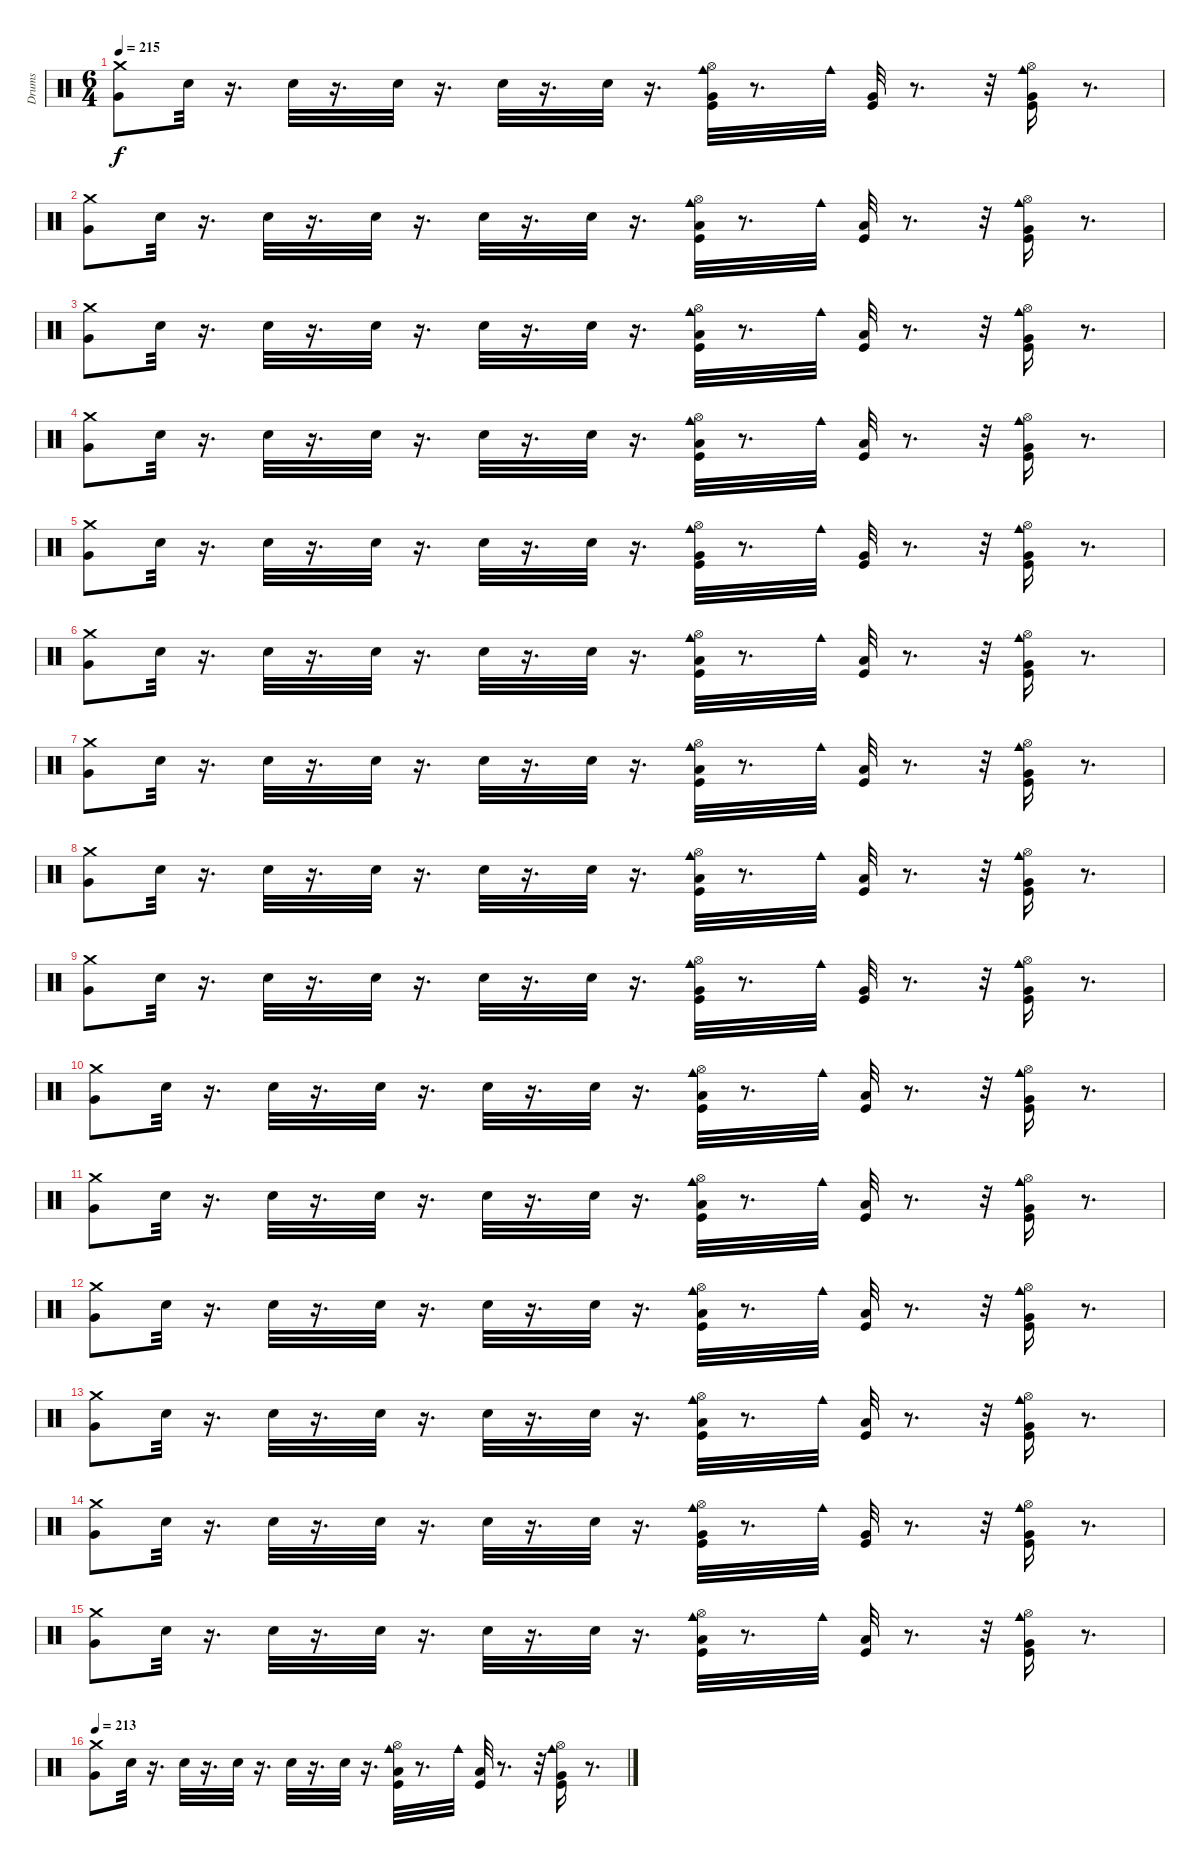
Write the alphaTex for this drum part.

\track ("Drums" "Drums") {instrument percussion}
\staff {score}
\articulation defaults
\ts (6 4)
\tempo 215
\clef neutral
\ks c
("Very Low Tom (hit)" "Crash medium (hit)").8{dy f} "Snare (hit) 2".32 r.16{d} "Snare (hit) 2".32 r.16{d} "Snare (hit) 2".32 r.16{d} "Snare (hit) 2".32 r.16{d} "Electric Snare (hit)".32 r.16{d} ("Very Low Tom (hit)" "Kick (hit)" "Hi-Hat (open)" "Cowbell medium (hit)").32 r.8{d} "Cowbell medium (hit)".32 ("Very Low Tom (hit)" "Kick (hit)").32 r.8{d} r.32 ("Very Low Tom (hit)" "Hi-Hat (open)" "Kick (hit)" "Cowbell medium (hit)").16 r.8{d} |
("Very Low Tom (hit)" "Crash medium (hit)").8 "Snare (hit) 2".32 r.16{d} "Snare (hit) 2".32 r.16{d} "Snare (hit) 2".32 r.16{d} "Snare (hit) 2".32 r.16{d} "Snare (hit) 2".32 r.16{d} ("Kick (hit)" "Hi-Hat (open)" "Cowbell medium (hit)" "Low Floor Tom (hit)").32 r.8{d} "Cowbell medium (hit)".32 ("Kick (hit)" "Low Floor Tom (hit)").32 r.8{d} r.32 ("Hi-Hat (open)" "Kick (hit)" "Cowbell medium (hit)" "Very Low Tom (hit)").16 r.8{d} |
("Very Low Tom (hit)" "Crash medium (hit)").8 "Snare (hit) 2".32 r.16{d} "Snare (hit) 2".32 r.16{d} "Snare (hit) 2".32 r.16{d} "Snare (hit) 2".32 r.16{d} "Snare (hit) 2".32 r.16{d} ("Kick (hit)" "Hi-Hat (open)" "Cowbell medium (hit)" "Low Floor Tom (hit)").32 r.8{d} "Cowbell medium (hit)".32 ("Kick (hit)" "Low Floor Tom (hit)").32 r.8{d} r.32 ("Hi-Hat (open)" "Kick (hit)" "Cowbell medium (hit)" "Very Low Tom (hit)").16 r.8{d} |
("Very Low Tom (hit)" "Crash medium (hit)").8 "Snare (hit) 2".32 r.16{d} "Snare (hit) 2".32 r.16{d} "Snare (hit) 2".32 r.16{d} "Snare (hit) 2".32 r.16{d} "Snare (hit) 2".32 r.16{d} ("Kick (hit)" "Hi-Hat (open)" "Cowbell medium (hit)" "Low Floor Tom (hit)").32 r.8{d} "Cowbell medium (hit)".32 ("Kick (hit)" "Low Floor Tom (hit)").32 r.8{d} r.32 ("Hi-Hat (open)" "Kick (hit)" "Cowbell medium (hit)" "Very Low Tom (hit)").16 r.8{d} |
("Very Low Tom (hit)" "Crash medium (hit)").8 "Snare (hit) 2".32 r.16{d} "Snare (hit) 2".32 r.16{d} "Snare (hit) 2".32 r.16{d} "Snare (hit) 2".32 r.16{d} "Electric Snare (hit)".32 r.16{d} ("Very Low Tom (hit)" "Kick (hit)" "Hi-Hat (open)" "Cowbell medium (hit)").32 r.8{d} "Cowbell medium (hit)".32 ("Very Low Tom (hit)" "Kick (hit)").32 r.8{d} r.32 ("Very Low Tom (hit)" "Hi-Hat (open)" "Kick (hit)" "Cowbell medium (hit)").16 r.8{d} |
("Very Low Tom (hit)" "Crash medium (hit)").8 "Snare (hit) 2".32 r.16{d} "Snare (hit) 2".32 r.16{d} "Snare (hit) 2".32 r.16{d} "Snare (hit) 2".32 r.16{d} "Snare (hit) 2".32 r.16{d} ("Kick (hit)" "Hi-Hat (open)" "Cowbell medium (hit)" "Low Floor Tom (hit)").32 r.8{d} "Cowbell medium (hit)".32 ("Kick (hit)" "Low Floor Tom (hit)").32 r.8{d} r.32 ("Hi-Hat (open)" "Kick (hit)" "Cowbell medium (hit)" "Very Low Tom (hit)").16 r.8{d} |
("Very Low Tom (hit)" "Crash medium (hit)").8 "Snare (hit) 2".32 r.16{d} "Snare (hit) 2".32 r.16{d} "Snare (hit) 2".32 r.16{d} "Snare (hit) 2".32 r.16{d} "Snare (hit) 2".32 r.16{d} ("Kick (hit)" "Hi-Hat (open)" "Cowbell medium (hit)" "Low Floor Tom (hit)").32 r.8{d} "Cowbell medium (hit)".32 ("Kick (hit)" "Low Floor Tom (hit)").32 r.8{d} r.32 ("Hi-Hat (open)" "Kick (hit)" "Cowbell medium (hit)" "Very Low Tom (hit)").16 r.8{d} |
("Very Low Tom (hit)" "Crash medium (hit)").8 "Snare (hit) 2".32 r.16{d} "Snare (hit) 2".32 r.16{d} "Snare (hit) 2".32 r.16{d} "Snare (hit) 2".32 r.16{d} "Snare (hit) 2".32 r.16{d} ("Kick (hit)" "Hi-Hat (open)" "Cowbell medium (hit)" "Low Floor Tom (hit)").32 r.8{d} "Cowbell medium (hit)".32 ("Kick (hit)" "Low Floor Tom (hit)").32 r.8{d} r.32 ("Hi-Hat (open)" "Kick (hit)" "Cowbell medium (hit)" "Very Low Tom (hit)").16 r.8{d} |
("Very Low Tom (hit)" "Crash medium (hit)").8 "Snare (hit) 2".32 r.16{d} "Snare (hit) 2".32 r.16{d} "Snare (hit) 2".32 r.16{d} "Snare (hit) 2".32 r.16{d} "Electric Snare (hit)".32 r.16{d} ("Very Low Tom (hit)" "Kick (hit)" "Hi-Hat (open)" "Cowbell medium (hit)").32 r.8{d} "Cowbell medium (hit)".32 ("Very Low Tom (hit)" "Kick (hit)").32 r.8{d} r.32 ("Very Low Tom (hit)" "Hi-Hat (open)" "Kick (hit)" "Cowbell medium (hit)").16 r.8{d} |
("Very Low Tom (hit)" "Crash medium (hit)").8 "Snare (hit) 2".32 r.16{d} "Snare (hit) 2".32 r.16{d} "Snare (hit) 2".32 r.16{d} "Snare (hit) 2".32 r.16{d} "Snare (hit) 2".32 r.16{d} ("Kick (hit)" "Hi-Hat (open)" "Cowbell medium (hit)" "Low Floor Tom (hit)").32 r.8{d} "Cowbell medium (hit)".32 ("Kick (hit)" "Low Floor Tom (hit)").32 r.8{d} r.32 ("Hi-Hat (open)" "Kick (hit)" "Cowbell medium (hit)" "Very Low Tom (hit)").16 r.8{d} |
("Very Low Tom (hit)" "Crash medium (hit)").8 "Snare (hit) 2".32 r.16{d} "Snare (hit) 2".32 r.16{d} "Snare (hit) 2".32 r.16{d} "Snare (hit) 2".32 r.16{d} "Snare (hit) 2".32 r.16{d} ("Kick (hit)" "Hi-Hat (open)" "Cowbell medium (hit)" "Low Floor Tom (hit)").32 r.8{d} "Cowbell medium (hit)".32 ("Kick (hit)" "Low Floor Tom (hit)").32 r.8{d} r.32 ("Hi-Hat (open)" "Kick (hit)" "Cowbell medium (hit)" "Very Low Tom (hit)").16 r.8{d} |
("Very Low Tom (hit)" "Crash medium (hit)").8 "Snare (hit) 2".32 r.16{d} "Snare (hit) 2".32 r.16{d} "Snare (hit) 2".32 r.16{d} "Snare (hit) 2".32 r.16{d} "Snare (hit) 2".32 r.16{d} ("Kick (hit)" "Hi-Hat (open)" "Cowbell medium (hit)" "Low Floor Tom (hit)").32 r.8{d} "Cowbell medium (hit)".32 ("Kick (hit)" "Low Floor Tom (hit)").32 r.8{d} r.32 ("Hi-Hat (open)" "Kick (hit)" "Cowbell medium (hit)" "Very Low Tom (hit)").16 r.8{d} |
("Very Low Tom (hit)" "Crash medium (hit)").8 "Snare (hit) 2".32 r.16{d} "Snare (hit) 2".32 r.16{d} "Snare (hit) 2".32 r.16{d} "Snare (hit) 2".32 r.16{d} "Snare (hit) 2".32 r.16{d} ("Kick (hit)" "Hi-Hat (open)" "Cowbell medium (hit)" "Low Floor Tom (hit)").32 r.8{d} "Cowbell medium (hit)".32 ("Kick (hit)" "Low Floor Tom (hit)").32 r.8{d} r.32 ("Hi-Hat (open)" "Kick (hit)" "Cowbell medium (hit)" "Very Low Tom (hit)").16 r.8{d} |
("Very Low Tom (hit)" "Crash medium (hit)").8 "Snare (hit) 2".32 r.16{d} "Snare (hit) 2".32 r.16{d} "Snare (hit) 2".32 r.16{d} "Snare (hit) 2".32 r.16{d} "Electric Snare (hit)".32 r.16{d} ("Very Low Tom (hit)" "Kick (hit)" "Hi-Hat (open)" "Cowbell medium (hit)").32 r.8{d} "Cowbell medium (hit)".32 ("Very Low Tom (hit)" "Kick (hit)").32 r.8{d} r.32 ("Very Low Tom (hit)" "Hi-Hat (open)" "Kick (hit)" "Cowbell medium (hit)").16 r.8{d} |
("Very Low Tom (hit)" "Crash medium (hit)").8 "Snare (hit) 2".32 r.16{d} "Snare (hit) 2".32 r.16{d} "Snare (hit) 2".32 r.16{d} "Snare (hit) 2".32 r.16{d} "Snare (hit) 2".32 r.16{d} ("Kick (hit)" "Hi-Hat (open)" "Cowbell medium (hit)" "Low Floor Tom (hit)").32 r.8{d} "Cowbell medium (hit)".32 ("Kick (hit)" "Low Floor Tom (hit)").32 r.8{d} r.32 ("Hi-Hat (open)" "Kick (hit)" "Cowbell medium (hit)" "Very Low Tom (hit)").16 r.8{d} |
\tempo 213
("Very Low Tom (hit)" "Crash medium (hit)").8 "Snare (hit) 2".32 r.16{d} "Snare (hit) 2".32 r.16{d} "Snare (hit) 2".32 r.16{d} "Snare (hit) 2".32 r.16{d} "Snare (hit) 2".32 r.16{d} ("Kick (hit)" "Hi-Hat (open)" "Cowbell medium (hit)" "Low Floor Tom (hit)").32 r.8{d} "Cowbell medium (hit)".32 ("Kick (hit)" "Low Floor Tom (hit)").32 r.8{d} r.32 ("Hi-Hat (open)" "Kick (hit)" "Cowbell medium (hit)" "Very Low Tom (hit)").16 r.8{d}
